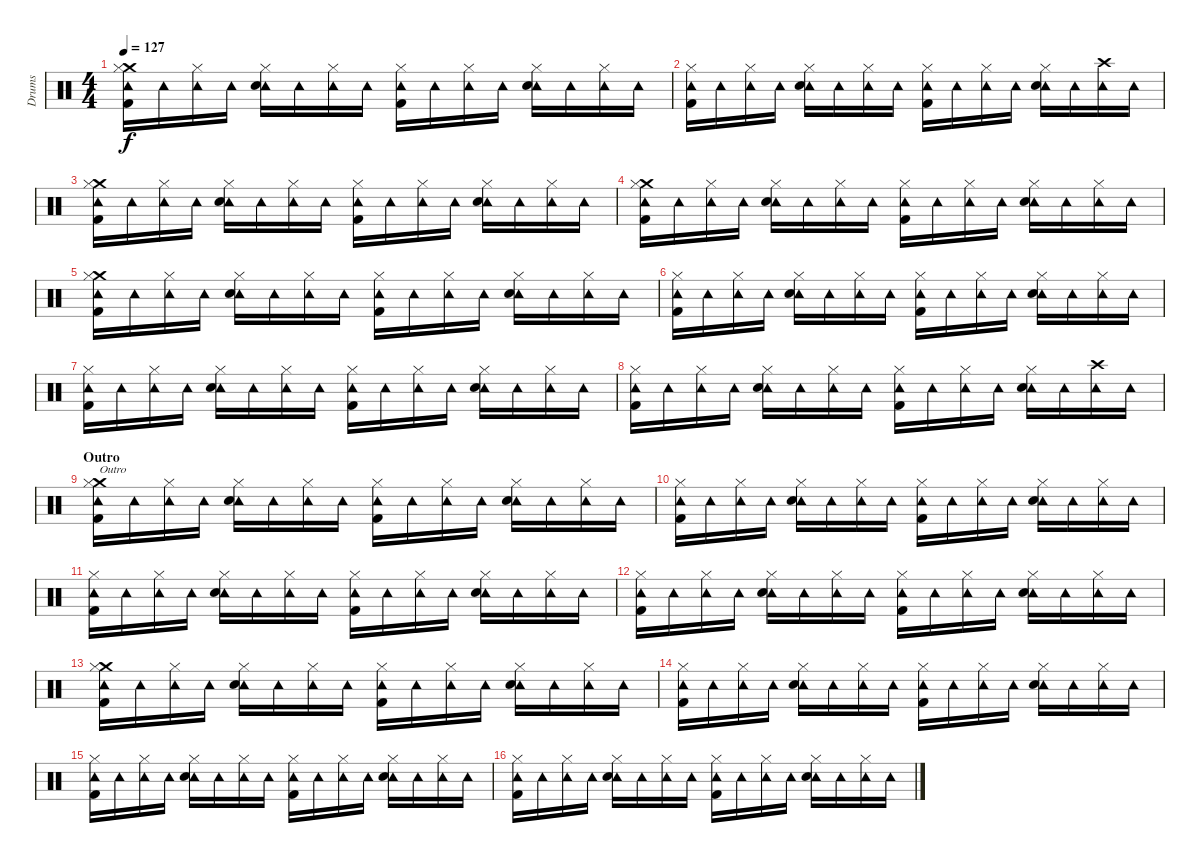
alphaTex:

\track ("Drums" "Drums") {instrument percussion}
\staff {score}
\articulation defaults
\ts (4 4)
\tempo 127
\clef neutral
\ks c
("Crash medium (hit)" "Tambourine (hit)" "Hi-Hat (closed)" "Kick (hit) 2").16{dy f} "Tambourine (hit)".16 ("Tambourine (hit)" "Hi-Hat (closed)").16 "Tambourine (hit)".16 ("Tambourine (hit)" "Hi-Hat (closed)" "Snare (hit) 2").16 "Tambourine (hit)".16 ("Tambourine (hit)" "Hi-Hat (closed)").16 "Tambourine (hit)".16 ("Tambourine (hit)" "Hi-Hat (closed)" "Kick (hit) 2").16 "Tambourine (hit)".16 ("Tambourine (hit)" "Hi-Hat (closed)").16 "Tambourine (hit)".16 ("Tambourine (hit)" "Hi-Hat (closed)" "Snare (hit) 2").16 "Tambourine (hit)".16 ("Tambourine (hit)" "Hi-Hat (closed)").16 "Tambourine (hit)".16 |
("Tambourine (hit)" "Hi-Hat (closed)" "Kick (hit) 2").16 "Tambourine (hit)".16 ("Tambourine (hit)" "Hi-Hat (closed)").16 "Tambourine (hit)".16 ("Tambourine (hit)" "Hi-Hat (closed)" "Snare (hit) 2").16 "Tambourine (hit)".16 ("Tambourine (hit)" "Hi-Hat (closed)").16 "Tambourine (hit)".16 ("Tambourine (hit)" "Hi-Hat (closed)" "Kick (hit) 2").16 "Tambourine (hit)".16 ("Tambourine (hit)" "Hi-Hat (closed)").16 "Tambourine (hit)".16 ("Tambourine (hit)" "Hi-Hat (closed)" "Snare (hit) 2").16 "Tambourine (hit)".16 ("Tambourine (hit)" "Crash high (hit)").16 "Tambourine (hit)".16 |
("Crash medium (hit)" "Tambourine (hit)" "Hi-Hat (closed)" "Kick (hit) 2").16 "Tambourine (hit)".16 ("Tambourine (hit)" "Hi-Hat (closed)").16 "Tambourine (hit)".16 ("Tambourine (hit)" "Hi-Hat (closed)" "Snare (hit) 2").16 "Tambourine (hit)".16 ("Tambourine (hit)" "Hi-Hat (closed)").16 "Tambourine (hit)".16 ("Tambourine (hit)" "Hi-Hat (closed)" "Kick (hit) 2").16 "Tambourine (hit)".16 ("Tambourine (hit)" "Hi-Hat (closed)").16 "Tambourine (hit)".16 ("Tambourine (hit)" "Hi-Hat (closed)" "Snare (hit) 2").16 "Tambourine (hit)".16 ("Tambourine (hit)" "Hi-Hat (closed)").16 "Tambourine (hit)".16 |
("Crash medium (hit)" "Tambourine (hit)" "Hi-Hat (closed)" "Kick (hit) 2").16 "Tambourine (hit)".16 ("Tambourine (hit)" "Hi-Hat (closed)").16 "Tambourine (hit)".16 ("Tambourine (hit)" "Hi-Hat (closed)" "Snare (hit) 2").16 "Tambourine (hit)".16 ("Tambourine (hit)" "Hi-Hat (closed)").16 "Tambourine (hit)".16 ("Tambourine (hit)" "Hi-Hat (closed)" "Kick (hit) 2").16 "Tambourine (hit)".16 ("Tambourine (hit)" "Hi-Hat (closed)").16 "Tambourine (hit)".16 ("Tambourine (hit)" "Hi-Hat (closed)" "Snare (hit) 2").16 "Tambourine (hit)".16 ("Tambourine (hit)" "Hi-Hat (closed)").16 "Tambourine (hit)".16 |
("Crash medium (hit)" "Tambourine (hit)" "Hi-Hat (closed)" "Kick (hit) 2").16 "Tambourine (hit)".16 ("Tambourine (hit)" "Hi-Hat (closed)").16 "Tambourine (hit)".16 ("Tambourine (hit)" "Hi-Hat (closed)" "Snare (hit) 2").16 "Tambourine (hit)".16 ("Tambourine (hit)" "Hi-Hat (closed)").16 "Tambourine (hit)".16 ("Tambourine (hit)" "Hi-Hat (closed)" "Kick (hit) 2").16 "Tambourine (hit)".16 ("Tambourine (hit)" "Hi-Hat (closed)").16 "Tambourine (hit)".16 ("Tambourine (hit)" "Hi-Hat (closed)" "Snare (hit) 2").16 "Tambourine (hit)".16 ("Tambourine (hit)" "Hi-Hat (closed)").16 "Tambourine (hit)".16 |
("Tambourine (hit)" "Hi-Hat (closed)" "Kick (hit) 2").16 "Tambourine (hit)".16 ("Tambourine (hit)" "Hi-Hat (closed)").16 "Tambourine (hit)".16 ("Tambourine (hit)" "Hi-Hat (closed)" "Snare (hit) 2").16 "Tambourine (hit)".16 ("Tambourine (hit)" "Hi-Hat (closed)").16 "Tambourine (hit)".16 ("Tambourine (hit)" "Hi-Hat (closed)" "Kick (hit) 2").16 "Tambourine (hit)".16 ("Tambourine (hit)" "Hi-Hat (closed)").16 "Tambourine (hit)".16 ("Tambourine (hit)" "Hi-Hat (closed)" "Snare (hit) 2").16 "Tambourine (hit)".16 ("Tambourine (hit)" "Hi-Hat (closed)").16 "Tambourine (hit)".16 |
("Tambourine (hit)" "Hi-Hat (closed)" "Kick (hit) 2").16 "Tambourine (hit)".16 ("Tambourine (hit)" "Hi-Hat (closed)").16 "Tambourine (hit)".16 ("Tambourine (hit)" "Hi-Hat (closed)" "Snare (hit) 2").16 "Tambourine (hit)".16 ("Tambourine (hit)" "Hi-Hat (closed)").16 "Tambourine (hit)".16 ("Tambourine (hit)" "Hi-Hat (closed)" "Kick (hit) 2").16 "Tambourine (hit)".16 ("Tambourine (hit)" "Hi-Hat (closed)").16 "Tambourine (hit)".16 ("Tambourine (hit)" "Hi-Hat (closed)" "Snare (hit) 2").16 "Tambourine (hit)".16 ("Tambourine (hit)" "Hi-Hat (closed)").16 "Tambourine (hit)".16 |
("Tambourine (hit)" "Hi-Hat (closed)" "Kick (hit) 2").16 "Tambourine (hit)".16 ("Tambourine (hit)" "Hi-Hat (closed)").16 "Tambourine (hit)".16 ("Tambourine (hit)" "Hi-Hat (closed)" "Snare (hit) 2").16 "Tambourine (hit)".16 ("Tambourine (hit)" "Hi-Hat (closed)").16 "Tambourine (hit)".16 ("Tambourine (hit)" "Hi-Hat (closed)" "Kick (hit) 2").16 "Tambourine (hit)".16 ("Tambourine (hit)" "Hi-Hat (closed)").16 "Tambourine (hit)".16 ("Tambourine (hit)" "Hi-Hat (closed)" "Snare (hit) 2").16 "Tambourine (hit)".16 ("Tambourine (hit)" "Crash high (hit)").16 "Tambourine (hit)".16 |
\section ("" "Outro")
("Crash medium (hit)" "Tambourine (hit)" "Hi-Hat (closed)" "Kick (hit) 2").16{txt "Outro"} "Tambourine (hit)".16 ("Tambourine (hit)" "Hi-Hat (closed)").16 "Tambourine (hit)".16 ("Tambourine (hit)" "Hi-Hat (closed)" "Snare (hit) 2").16 "Tambourine (hit)".16 ("Tambourine (hit)" "Hi-Hat (closed)").16 "Tambourine (hit)".16 ("Tambourine (hit)" "Hi-Hat (closed)" "Kick (hit) 2").16 "Tambourine (hit)".16 ("Tambourine (hit)" "Hi-Hat (closed)").16 "Tambourine (hit)".16 ("Tambourine (hit)" "Hi-Hat (closed)" "Snare (hit) 2").16 "Tambourine (hit)".16 ("Tambourine (hit)" "Hi-Hat (closed)").16 "Tambourine (hit)".16 |
("Tambourine (hit)" "Hi-Hat (closed)" "Kick (hit) 2").16 "Tambourine (hit)".16 ("Tambourine (hit)" "Hi-Hat (closed)").16 "Tambourine (hit)".16 ("Tambourine (hit)" "Hi-Hat (closed)" "Snare (hit) 2").16 "Tambourine (hit)".16 ("Tambourine (hit)" "Hi-Hat (closed)").16 "Tambourine (hit)".16 ("Tambourine (hit)" "Hi-Hat (closed)" "Kick (hit) 2").16 "Tambourine (hit)".16 ("Tambourine (hit)" "Hi-Hat (closed)").16 "Tambourine (hit)".16 ("Tambourine (hit)" "Hi-Hat (closed)" "Snare (hit) 2").16 "Tambourine (hit)".16 ("Tambourine (hit)" "Hi-Hat (closed)").16 "Tambourine (hit)".16 |
("Tambourine (hit)" "Hi-Hat (closed)" "Kick (hit) 2").16 "Tambourine (hit)".16 ("Tambourine (hit)" "Hi-Hat (closed)").16 "Tambourine (hit)".16 ("Tambourine (hit)" "Hi-Hat (closed)" "Snare (hit) 2").16 "Tambourine (hit)".16 ("Tambourine (hit)" "Hi-Hat (closed)").16 "Tambourine (hit)".16 ("Tambourine (hit)" "Hi-Hat (closed)" "Kick (hit) 2").16 "Tambourine (hit)".16 ("Tambourine (hit)" "Hi-Hat (closed)").16 "Tambourine (hit)".16 ("Tambourine (hit)" "Hi-Hat (closed)" "Snare (hit) 2").16 "Tambourine (hit)".16 ("Tambourine (hit)" "Hi-Hat (closed)").16 "Tambourine (hit)".16 |
("Tambourine (hit)" "Hi-Hat (closed)" "Kick (hit) 2").16 "Tambourine (hit)".16 ("Tambourine (hit)" "Hi-Hat (closed)").16 "Tambourine (hit)".16 ("Tambourine (hit)" "Hi-Hat (closed)" "Snare (hit) 2").16 "Tambourine (hit)".16 ("Tambourine (hit)" "Hi-Hat (closed)").16 "Tambourine (hit)".16 ("Tambourine (hit)" "Hi-Hat (closed)" "Kick (hit) 2").16 "Tambourine (hit)".16 ("Tambourine (hit)" "Hi-Hat (closed)").16 "Tambourine (hit)".16 ("Tambourine (hit)" "Hi-Hat (closed)" "Snare (hit) 2").16 "Tambourine (hit)".16 ("Tambourine (hit)" "Hi-Hat (closed)").16 "Tambourine (hit)".16 |
("Crash medium (hit)" "Tambourine (hit)" "Hi-Hat (closed)" "Kick (hit) 2").16 "Tambourine (hit)".16 ("Tambourine (hit)" "Hi-Hat (closed)").16 "Tambourine (hit)".16 ("Tambourine (hit)" "Hi-Hat (closed)" "Snare (hit) 2").16 "Tambourine (hit)".16 ("Tambourine (hit)" "Hi-Hat (closed)").16 "Tambourine (hit)".16 ("Tambourine (hit)" "Hi-Hat (closed)" "Kick (hit) 2").16 "Tambourine (hit)".16 ("Tambourine (hit)" "Hi-Hat (closed)").16 "Tambourine (hit)".16 ("Tambourine (hit)" "Hi-Hat (closed)" "Snare (hit) 2").16 "Tambourine (hit)".16 ("Tambourine (hit)" "Hi-Hat (closed)").16 "Tambourine (hit)".16 |
("Tambourine (hit)" "Hi-Hat (closed)" "Kick (hit) 2").16 "Tambourine (hit)".16 ("Tambourine (hit)" "Hi-Hat (closed)").16 "Tambourine (hit)".16 ("Tambourine (hit)" "Hi-Hat (closed)" "Snare (hit) 2").16 "Tambourine (hit)".16 ("Tambourine (hit)" "Hi-Hat (closed)").16 "Tambourine (hit)".16 ("Tambourine (hit)" "Hi-Hat (closed)" "Kick (hit) 2").16 "Tambourine (hit)".16 ("Tambourine (hit)" "Hi-Hat (closed)").16 "Tambourine (hit)".16 ("Tambourine (hit)" "Hi-Hat (closed)" "Snare (hit) 2").16 "Tambourine (hit)".16 ("Tambourine (hit)" "Hi-Hat (closed)").16 "Tambourine (hit)".16 |
("Tambourine (hit)" "Hi-Hat (closed)" "Kick (hit) 2").16 "Tambourine (hit)".16 ("Tambourine (hit)" "Hi-Hat (closed)").16 "Tambourine (hit)".16 ("Tambourine (hit)" "Hi-Hat (closed)" "Snare (hit) 2").16 "Tambourine (hit)".16 ("Tambourine (hit)" "Hi-Hat (closed)").16 "Tambourine (hit)".16 ("Tambourine (hit)" "Hi-Hat (closed)" "Kick (hit) 2").16 "Tambourine (hit)".16 ("Tambourine (hit)" "Hi-Hat (closed)").16 "Tambourine (hit)".16 ("Tambourine (hit)" "Hi-Hat (closed)" "Snare (hit) 2").16 "Tambourine (hit)".16 ("Tambourine (hit)" "Hi-Hat (closed)").16 "Tambourine (hit)".16 |
("Tambourine (hit)" "Hi-Hat (closed)" "Kick (hit) 2").16 "Tambourine (hit)".16 ("Tambourine (hit)" "Hi-Hat (closed)").16 "Tambourine (hit)".16 ("Tambourine (hit)" "Hi-Hat (closed)" "Snare (hit) 2").16 "Tambourine (hit)".16 ("Tambourine (hit)" "Hi-Hat (closed)").16 "Tambourine (hit)".16 ("Tambourine (hit)" "Hi-Hat (closed)" "Kick (hit) 2").16 "Tambourine (hit)".16 ("Tambourine (hit)" "Hi-Hat (closed)").16 "Tambourine (hit)".16 ("Tambourine (hit)" "Hi-Hat (closed)" "Snare (hit) 2").16 "Tambourine (hit)".16 ("Tambourine (hit)" "Hi-Hat (closed)").16 "Tambourine (hit)".16
